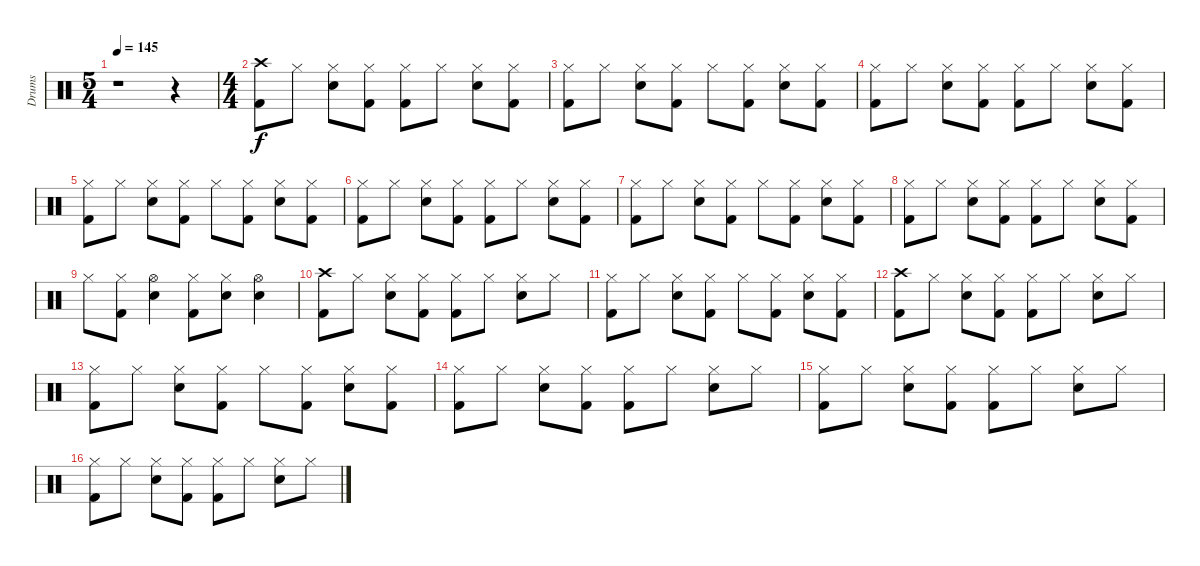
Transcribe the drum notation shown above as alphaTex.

\track ("Drums" "Drums") {instrument percussion}
\staff {score}
\articulation defaults
\ts (5 4)
\tempo 145
\clef neutral
\ks c
r.1{dy f} r.4 |
\ts (4 4)
("Crash high (hit)" "Kick (hit) 2").8 "Hi-Hat (closed)".8 ("Hi-Hat (closed)" "Electric Snare (hit)").8 ("Hi-Hat (closed)" "Kick (hit) 2").8 ("Hi-Hat (closed)" "Kick (hit) 2").8 "Hi-Hat (closed)".8 ("Hi-Hat (closed)" "Electric Snare (hit)").8 ("Hi-Hat (closed)" "Kick (hit) 2").8 |
("Hi-Hat (closed)" "Kick (hit) 2").8 "Hi-Hat (closed)".8 ("Hi-Hat (closed)" "Electric Snare (hit)").8 ("Hi-Hat (closed)" "Kick (hit) 2").8 "Hi-Hat (closed)".8 ("Hi-Hat (closed)" "Kick (hit) 2").8 ("Hi-Hat (closed)" "Electric Snare (hit)").8 ("Hi-Hat (closed)" "Kick (hit) 2").8 |
("Hi-Hat (closed)" "Kick (hit) 2").8 "Hi-Hat (closed)".8 ("Hi-Hat (closed)" "Electric Snare (hit)").8 ("Hi-Hat (closed)" "Kick (hit) 2").8 ("Hi-Hat (closed)" "Kick (hit) 2").8 "Hi-Hat (closed)".8 ("Hi-Hat (closed)" "Electric Snare (hit)").8 ("Hi-Hat (closed)" "Kick (hit) 2").8 |
("Hi-Hat (closed)" "Kick (hit) 2").8 "Hi-Hat (closed)".8 ("Hi-Hat (closed)" "Electric Snare (hit)").8 ("Hi-Hat (closed)" "Kick (hit) 2").8 "Hi-Hat (closed)".8 ("Hi-Hat (closed)" "Kick (hit) 2").8 ("Hi-Hat (closed)" "Electric Snare (hit)").8 ("Hi-Hat (closed)" "Kick (hit) 2").8 |
("Hi-Hat (closed)" "Kick (hit) 2").8 "Hi-Hat (closed)".8 ("Hi-Hat (closed)" "Electric Snare (hit)").8 ("Hi-Hat (closed)" "Kick (hit) 2").8 ("Hi-Hat (closed)" "Kick (hit) 2").8 "Hi-Hat (closed)".8 ("Hi-Hat (closed)" "Electric Snare (hit)").8 ("Hi-Hat (closed)" "Kick (hit) 2").8 |
("Hi-Hat (closed)" "Kick (hit) 2").8 "Hi-Hat (closed)".8 ("Hi-Hat (closed)" "Electric Snare (hit)").8 ("Hi-Hat (closed)" "Kick (hit) 2").8 "Hi-Hat (closed)".8 ("Hi-Hat (closed)" "Kick (hit) 2").8 ("Hi-Hat (closed)" "Electric Snare (hit)").8 ("Hi-Hat (closed)" "Kick (hit) 2").8 |
("Hi-Hat (closed)" "Kick (hit) 2").8 "Hi-Hat (closed)".8 ("Hi-Hat (closed)" "Electric Snare (hit)").8 ("Hi-Hat (closed)" "Kick (hit) 2").8 ("Hi-Hat (closed)" "Kick (hit) 2").8 "Hi-Hat (closed)".8 ("Hi-Hat (closed)" "Electric Snare (hit)").8 ("Hi-Hat (closed)" "Kick (hit) 2").8 |
"Hi-Hat (closed)".8 ("Hi-Hat (closed)" "Kick (hit) 2").8 ("Hi-Hat (open)" "Electric Snare (hit)").4 ("Hi-Hat (closed)" "Kick (hit) 2").8 ("Hi-Hat (closed)" "Electric Snare (hit)").8 ("Hi-Hat (open)" "Electric Snare (hit)").4 |
("Crash high (hit)" "Kick (hit) 2").8 "Hi-Hat (closed)".8 ("Hi-Hat (closed)" "Electric Snare (hit)").8 ("Hi-Hat (closed)" "Kick (hit) 2").8 ("Hi-Hat (closed)" "Kick (hit) 2").8 "Hi-Hat (closed)".8 ("Hi-Hat (closed)" "Electric Snare (hit)").8 "Hi-Hat (closed)".8 |
("Hi-Hat (closed)" "Kick (hit) 2").8 "Hi-Hat (closed)".8 ("Hi-Hat (closed)" "Electric Snare (hit)").8 ("Hi-Hat (closed)" "Kick (hit) 2").8 "Hi-Hat (closed)".8 ("Hi-Hat (closed)" "Kick (hit) 2").8 ("Hi-Hat (closed)" "Electric Snare (hit)").8 ("Hi-Hat (closed)" "Kick (hit) 2").8 |
("Crash high (hit)" "Kick (hit) 2").8 "Hi-Hat (closed)".8 ("Hi-Hat (closed)" "Electric Snare (hit)").8 ("Hi-Hat (closed)" "Kick (hit) 2").8 ("Hi-Hat (closed)" "Kick (hit) 2").8 "Hi-Hat (closed)".8 ("Hi-Hat (closed)" "Electric Snare (hit)").8 "Hi-Hat (closed)".8 |
("Hi-Hat (closed)" "Kick (hit) 2").8 "Hi-Hat (closed)".8 ("Hi-Hat (closed)" "Electric Snare (hit)").8 ("Hi-Hat (closed)" "Kick (hit) 2").8 "Hi-Hat (closed)".8 ("Hi-Hat (closed)" "Kick (hit) 2").8 ("Hi-Hat (closed)" "Electric Snare (hit)").8 ("Hi-Hat (closed)" "Kick (hit) 2").8 |
("Hi-Hat (closed)" "Kick (hit) 2").8 "Hi-Hat (closed)".8 ("Hi-Hat (closed)" "Electric Snare (hit)").8 ("Hi-Hat (closed)" "Kick (hit) 2").8 ("Hi-Hat (closed)" "Kick (hit) 2").8 "Hi-Hat (closed)".8 ("Hi-Hat (closed)" "Electric Snare (hit)").8 "Hi-Hat (closed)".8 |
("Hi-Hat (closed)" "Kick (hit) 2").8 "Hi-Hat (closed)".8 ("Hi-Hat (closed)" "Electric Snare (hit)").8 ("Hi-Hat (closed)" "Kick (hit) 2").8 ("Hi-Hat (closed)" "Kick (hit) 2").8 "Hi-Hat (closed)".8 ("Hi-Hat (closed)" "Electric Snare (hit)").8 "Hi-Hat (closed)".8 |
("Hi-Hat (closed)" "Kick (hit) 2").8 "Hi-Hat (closed)".8 ("Hi-Hat (closed)" "Electric Snare (hit)").8 ("Hi-Hat (closed)" "Kick (hit) 2").8 ("Hi-Hat (closed)" "Kick (hit) 2").8 "Hi-Hat (closed)".8 ("Hi-Hat (closed)" "Electric Snare (hit)").8 "Hi-Hat (closed)".8
